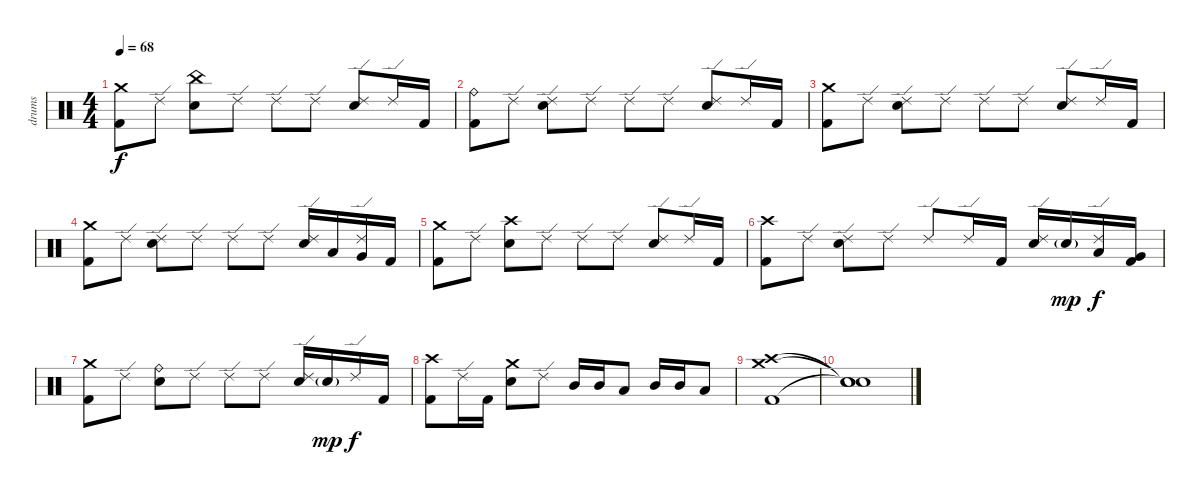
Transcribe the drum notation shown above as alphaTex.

\track ("drums" "drums") {instrument percussion}
\staff {score}
\articulation defaults
\ts (4 4)
\tempo 68
\clef neutral
\ks c
("Crash medium (hit)" "Kick (hit) 2").8{dy f} "Ride (edge) 2".8 ("China (hit)" "Electric Snare (hit)").8 "Ride (edge) 2".8 "Ride (edge) 2".8 "Ride (edge) 2".8 ("Ride (edge) 2" "Electric Snare (hit)").8 "Ride (edge) 2".16 "Kick (hit) 2".16 |
("Ride (bell)" "Kick (hit) 2").8 "Ride (edge) 2".8 ("Ride (edge) 2" "Electric Snare (hit)").8 "Ride (edge) 2".8 "Ride (edge) 2".8 "Ride (edge) 2".8 ("Ride (edge) 2" "Electric Snare (hit)").8 "Ride (edge) 2".16 "Kick (hit) 2".16 |
("Crash medium (hit)" "Kick (hit) 2").8 "Ride (edge) 2".8 ("Ride (edge) 2" "Electric Snare (hit)").8 "Ride (edge) 2".8 "Ride (edge) 2".8 "Ride (edge) 2".8 ("Ride (edge) 2" "Electric Snare (hit)").8 "Ride (edge) 2".16 "Kick (hit) 2".16 |
("Crash medium (hit)" "Kick (hit) 2").8 "Ride (edge) 2".8 ("Ride (edge) 2" "Electric Snare (hit)").8 "Ride (edge) 2".8 "Ride (edge) 2".8 "Ride (edge) 2".8 ("Ride (edge) 2" "Electric Snare (hit)").16 "Low Tom (hit)".16 ("Ride (edge) 2" "Very Low Tom (hit)").16 "Kick (hit) 2".16 |
("Crash medium (hit)" "Kick (hit) 2").8 "Ride (edge) 2".8 ("Crash high (hit)" "Electric Snare (hit)").8 "Ride (edge) 2".8 "Ride (edge) 2".8 "Ride (edge) 2".8 ("Ride (edge) 2" "Electric Snare (hit)").8 "Ride (edge) 2".16 "Kick (hit) 2".16 |
("Crash high (hit)" "Kick (hit) 2").8 "Ride (edge) 2".8 ("Ride (edge) 2" "Electric Snare (hit)").8 "Ride (edge) 2".8 "Ride (edge) 2".8 "Ride (edge) 2".16 "Kick (hit) 2".16 ("Ride (edge) 2" "Electric Snare (hit)").16 "Electric Snare (hit)"{g}.16{dy mp} ("Ride (edge) 2" "Low Tom (hit)").16{dy f} ("Very Low Tom (hit)" "Kick (hit) 2").16 |
("Crash medium (hit)" "Kick (hit) 2").8 "Ride (edge) 2".8 ("Ride (bell)" "Electric Snare (hit)").8 "Ride (edge) 2".8 "Ride (edge) 2".8 "Ride (edge) 2".8 ("Ride (edge) 2" "Electric Snare (hit)").16 "Electric Snare (hit)"{g}.16{dy mp} "Ride (edge) 2".16{dy f} "Kick (hit) 2".16 |
("Crash high (hit)" "Kick (hit) 2").8 "Ride (edge) 2".16 "Kick (hit) 2".16 ("Crash medium (hit)" "Electric Snare (hit)").8 "Ride (edge) 2".8 "Mid Tom (hit)".16 "Mid Tom (hit)".16 "Low Tom (hit)".8 "Mid Tom (hit)".16 "Mid Tom (hit)".16 "Low Tom (hit)".8 |
("Crash high (hit)" "Crash medium (hit)" "Kick (hit) 2").1 |
("Snare (hit)"{t} "Snare (hit)"{t} "Snare (hit)"{t}).1
